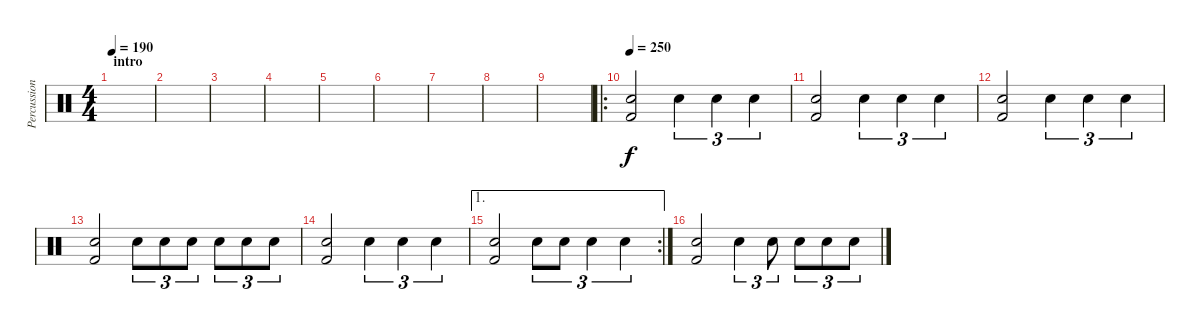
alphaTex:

\track ("Percussions" "Percussion") {instrument percussion}
\staff {score}
\articulation defaults
\ts (4 4)
\section ("" "intro")
\tempo 190
\tempo 120
\tempo 190
\clef neutral
\ks c
|
|
|
|
|
|
|
|
|
\ro
\tempo 250
("Electric Snare (hit)" "Kick (hit) 2").2 "Electric Snare (hit)".4{tu (3 2)} "Electric Snare (hit)".4{tu (3 2)} "Electric Snare (hit)".4{tu (3 2)} |
("Electric Snare (hit)" "Kick (hit) 2").2 "Electric Snare (hit)".4{tu (3 2)} "Electric Snare (hit)".4{tu (3 2)} "Electric Snare (hit)".4{tu (3 2)} |
("Electric Snare (hit)" "Kick (hit) 2").2 "Electric Snare (hit)".4{tu (3 2)} "Electric Snare (hit)".4{tu (3 2)} "Electric Snare (hit)".4{tu (3 2)} |
("Electric Snare (hit)" "Kick (hit) 2").2 "Electric Snare (hit)".8{tu (3 2)} "Electric Snare (hit)".8{tu (3 2)} "Electric Snare (hit)".8{tu (3 2)} "Electric Snare (hit)".8{tu (3 2)} "Electric Snare (hit)".8{tu (3 2)} "Electric Snare (hit)".8{tu (3 2)} |
("Electric Snare (hit)" "Kick (hit) 2").2 "Electric Snare (hit)".4{tu (3 2)} "Electric Snare (hit)".4{tu (3 2)} "Electric Snare (hit)".4{tu (3 2)} |
\ae 1
\rc 2
("Electric Snare (hit)" "Kick (hit) 2").2 "Electric Snare (hit)".8{tu (3 2)} "Electric Snare (hit)".8{tu (3 2)} "Electric Snare (hit)".4{tu (3 2)} "Electric Snare (hit)".4{tu (3 2)} |
("Electric Snare (hit)" "Kick (hit) 2").2 "Electric Snare (hit)".4{tu (3 2)} "Electric Snare (hit)".8{tu (3 2)} "Electric Snare (hit)".8{tu (3 2)} "Electric Snare (hit)".8{tu (3 2)} "Electric Snare (hit)".8{tu (3 2)}
